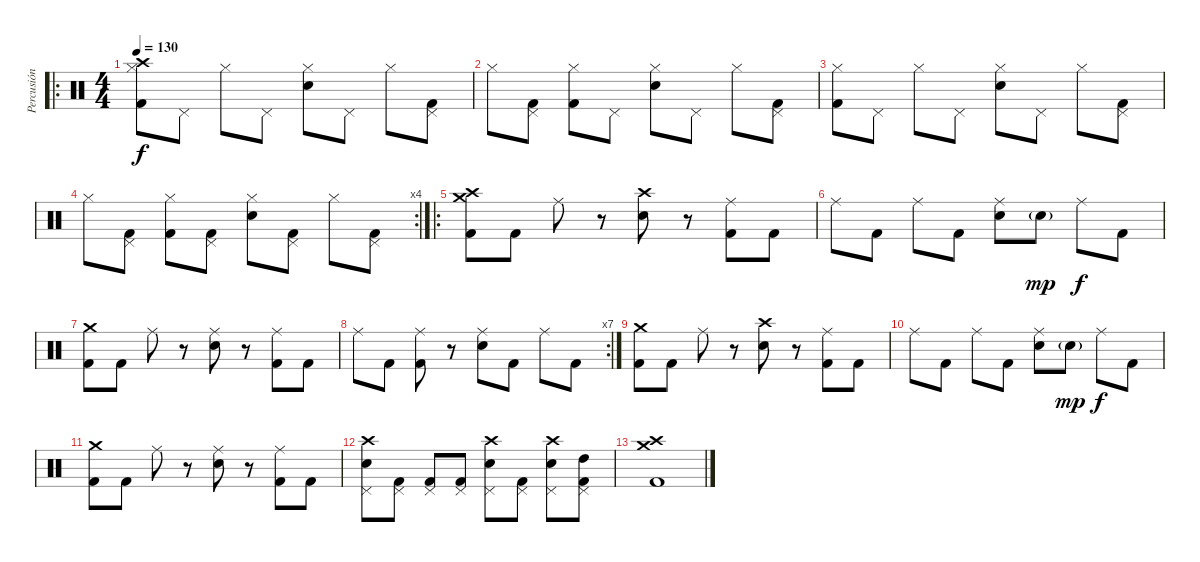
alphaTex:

\track ("Percusión" "Percusión") {instrument percussion}
\staff {score}
\articulation defaults
\ro
\ts (4 4)
\tempo 130
\clef neutral
\ks c
("Crash high (hit)" "Hi-Hat (closed)" "Kick (hit) 2").8{dy f} "Pedal Hi-Hat (hit)".8 "Hi-Hat (closed)".8 "Pedal Hi-Hat (hit)".8 ("Hi-Hat (closed)" "Snare (hit) 2").8 "Pedal Hi-Hat (hit)".8 "Hi-Hat (closed)".8 ("Pedal Hi-Hat (hit)" "Kick (hit) 2").8 |
"Hi-Hat (closed)".8 ("Pedal Hi-Hat (hit)" "Kick (hit) 2").8 ("Hi-Hat (closed)" "Kick (hit) 2").8 "Pedal Hi-Hat (hit)".8 ("Hi-Hat (closed)" "Snare (hit) 2").8 "Pedal Hi-Hat (hit)".8 "Hi-Hat (closed)".8 ("Pedal Hi-Hat (hit)" "Kick (hit) 2").8 |
("Hi-Hat (closed)" "Kick (hit) 2").8 "Pedal Hi-Hat (hit)".8 "Hi-Hat (closed)".8 "Pedal Hi-Hat (hit)".8 ("Hi-Hat (closed)" "Snare (hit) 2").8 "Pedal Hi-Hat (hit)".8 "Hi-Hat (closed)".8 ("Pedal Hi-Hat (hit)" "Kick (hit) 2").8 |
\rc 4 "Hi-Hat (closed)".8
("Pedal Hi-Hat (hit)" "Kick (hit) 2").8 ("Hi-Hat (closed)" "Kick (hit) 2").8 ("Pedal Hi-Hat (hit)" "Kick (hit) 2").8 ("Hi-Hat (closed)" "Snare (hit) 2").8 ("Pedal Hi-Hat (hit)" "Kick (hit) 2").8 "Hi-Hat (closed)".8 ("Pedal Hi-Hat (hit)" "Kick (hit) 2").8 |
\ro
("Crash medium (hit)" "Crash high (hit)" "Kick (hit) 2").8 "Kick (hit) 2".8 "Ride (middle)".8 r.8 ("Crash high (hit)" "Snare (hit) 2").8 r.8 ("Ride (middle)" "Kick (hit) 2").8 "Kick (hit) 2".8 |
"Ride (middle)".8 "Kick (hit) 2".8 "Ride (middle)".8 "Kick (hit) 2".8 ("Ride (middle)" "Snare (hit) 2").8 "Snare (hit) 2"{g}.8{dy mp} "Ride (middle)".8{dy f} "Kick (hit) 2".8 |
("Crash medium (hit)" "Kick (hit) 2").8 "Kick (hit) 2".8 "Ride (middle)".8 r.8 ("Ride (middle)" "Snare (hit) 2").8 r.8 ("Ride (middle)" "Kick (hit) 2").8 "Kick (hit) 2".8 |
\rc 7 "Ride (middle)".8 "Kick (hit) 2".8
("Ride (middle)" "Kick (hit) 2").8 r.8 ("Ride (middle)" "Snare (hit) 2").8 "Kick (hit) 2".8 "Ride (middle)".8 "Kick (hit) 2".8 |
("Crash medium (hit)" "Kick (hit) 2").8 "Kick (hit) 2".8 "Ride (middle)".8 r.8 ("Crash high (hit)" "Snare (hit) 2").8 r.8 ("Ride (middle)" "Kick (hit) 2").8 "Kick (hit) 2".8 |
"Ride (middle)".8 "Kick (hit) 2".8 "Ride (middle)".8 "Kick (hit) 2".8 ("Ride (middle)" "Snare (hit) 2").8 "Snare (hit) 2"{g}.8{dy mp} "Ride (middle)".8{dy f} "Kick (hit) 2".8 |
("Crash medium (hit)" "Kick (hit) 2").8 "Kick (hit) 2".8 "Ride (middle)".8 r.8 ("Ride (middle)" "Snare (hit) 2").8 r.8 ("Ride (middle)" "Kick (hit) 2").8 "Kick (hit) 2".8 |
("Crash high (hit)" "Pedal Hi-Hat (hit)" "Snare (hit) 2").8 ("Pedal Hi-Hat (hit)" "Kick (hit) 2").8 ("Pedal Hi-Hat (hit)" "Kick (hit) 2").8 ("Pedal Hi-Hat (hit)" "Kick (hit) 2").8 ("Crash high (hit)" "Pedal Hi-Hat (hit)" "Snare (hit) 2").8 ("Pedal Hi-Hat (hit)" "Kick (hit) 2").8 ("Crash high (hit)" "Pedal Hi-Hat (hit)" "Snare (hit) 2").8 ("Pedal Hi-Hat (hit)" "High Tom (hit)" "Kick (hit) 2").8 |
("Crash high (hit)" "Crash medium (hit)" "Kick (hit) 2").1
